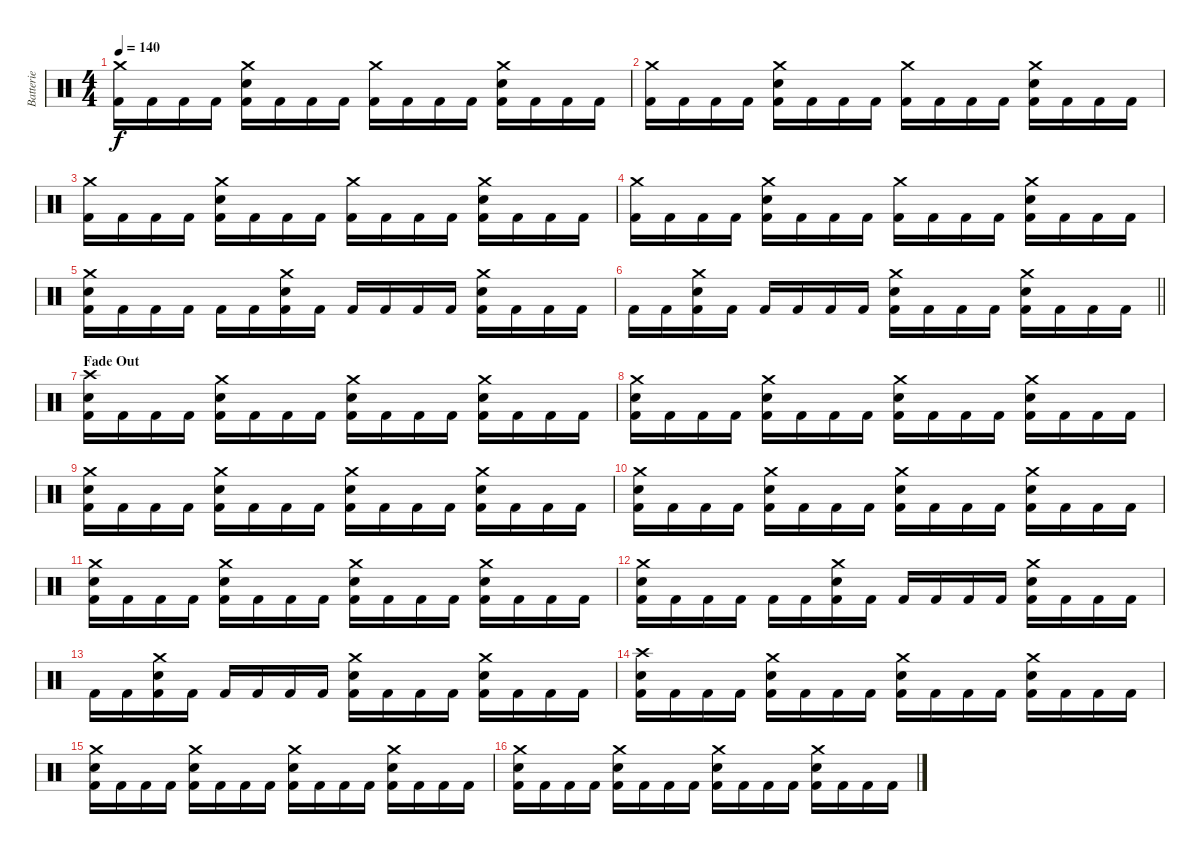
\track ("Batterie" "Batterie") {instrument percussion}
\staff {score}
\articulation defaults
\ts (4 4)
\tempo 140
\clef neutral
\ks c
("Crash medium (hit)" "Kick (hit) 2").16{dy f} "Kick (hit) 2".16 "Kick (hit) 2".16 "Kick (hit) 2".16 ("Crash medium (hit)" "Electric Snare (hit)" "Kick (hit) 2").16 "Kick (hit) 2".16 "Kick (hit) 2".16 "Kick (hit) 2".16 ("Crash medium (hit)" "Kick (hit) 2").16 "Kick (hit) 2".16 "Kick (hit) 2".16 "Kick (hit) 2".16 ("Crash medium (hit)" "Electric Snare (hit)" "Kick (hit) 2").16 "Kick (hit) 2".16 "Kick (hit) 2".16 "Kick (hit) 2".16 |
("Crash medium (hit)" "Kick (hit) 2").16 "Kick (hit) 2".16 "Kick (hit) 2".16 "Kick (hit) 2".16 ("Crash medium (hit)" "Electric Snare (hit)" "Kick (hit) 2").16 "Kick (hit) 2".16 "Kick (hit) 2".16 "Kick (hit) 2".16 ("Crash medium (hit)" "Kick (hit) 2").16 "Kick (hit) 2".16 "Kick (hit) 2".16 "Kick (hit) 2".16 ("Crash medium (hit)" "Electric Snare (hit)" "Kick (hit) 2").16 "Kick (hit) 2".16 "Kick (hit) 2".16 "Kick (hit) 2".16 |
("Crash medium (hit)" "Kick (hit) 2").16 "Kick (hit) 2".16 "Kick (hit) 2".16 "Kick (hit) 2".16 ("Crash medium (hit)" "Electric Snare (hit)" "Kick (hit) 2").16 "Kick (hit) 2".16 "Kick (hit) 2".16 "Kick (hit) 2".16 ("Crash medium (hit)" "Kick (hit) 2").16 "Kick (hit) 2".16 "Kick (hit) 2".16 "Kick (hit) 2".16 ("Crash medium (hit)" "Electric Snare (hit)" "Kick (hit) 2").16 "Kick (hit) 2".16 "Kick (hit) 2".16 "Kick (hit) 2".16 |
("Crash medium (hit)" "Kick (hit) 2").16 "Kick (hit) 2".16 "Kick (hit) 2".16 "Kick (hit) 2".16 ("Crash medium (hit)" "Electric Snare (hit)" "Kick (hit) 2").16 "Kick (hit) 2".16 "Kick (hit) 2".16 "Kick (hit) 2".16 ("Crash medium (hit)" "Kick (hit) 2").16 "Kick (hit) 2".16 "Kick (hit) 2".16 "Kick (hit) 2".16 ("Crash medium (hit)" "Electric Snare (hit)" "Kick (hit) 2").16 "Kick (hit) 2".16 "Kick (hit) 2".16 "Kick (hit) 2".16 |
("Crash medium (hit)" "Electric Snare (hit)" "Kick (hit) 2").16 "Kick (hit) 2".16 "Kick (hit) 2".16 "Kick (hit) 2".16 "Kick (hit) 2".16 "Kick (hit) 2".16 ("Crash medium (hit)" "Electric Snare (hit)" "Kick (hit) 2").16 "Kick (hit) 2".16 "Kick (hit) 2".16 "Kick (hit) 2".16 "Kick (hit) 2".16 "Kick (hit) 2".16 ("Crash medium (hit)" "Electric Snare (hit)" "Kick (hit) 2").16 "Kick (hit) 2".16 "Kick (hit) 2".16 "Kick (hit) 2".16 |
\barLineRight lightlight "Kick (hit) 2".16 "Kick (hit) 2".16
("Crash medium (hit)" "Electric Snare (hit)" "Kick (hit) 2").16 "Kick (hit) 2".16 "Kick (hit) 2".16 "Kick (hit) 2".16 "Kick (hit) 2".16 "Kick (hit) 2".16 ("Crash medium (hit)" "Electric Snare (hit)" "Kick (hit) 2").16 "Kick (hit) 2".16 "Kick (hit) 2".16 "Kick (hit) 2".16 ("Crash medium (hit)" "Electric Snare (hit)" "Kick (hit) 2").16 "Kick (hit) 2".16 "Kick (hit) 2".16 "Kick (hit) 2".16 |
\section ("" "Fade Out")
("Crash high (hit)" "Electric Snare (hit)" "Kick (hit) 2").16 "Kick (hit) 2".16 "Kick (hit) 2".16 "Kick (hit) 2".16 ("Crash medium (hit)" "Electric Snare (hit)" "Kick (hit) 2").16 "Kick (hit) 2".16 "Kick (hit) 2".16 "Kick (hit) 2".16 ("Crash medium (hit)" "Electric Snare (hit)" "Kick (hit) 2").16 "Kick (hit) 2".16 "Kick (hit) 2".16 "Kick (hit) 2".16 ("Crash medium (hit)" "Electric Snare (hit)" "Kick (hit) 2").16 "Kick (hit) 2".16 "Kick (hit) 2".16 "Kick (hit) 2".16 |
("Crash medium (hit)" "Electric Snare (hit)" "Kick (hit) 2").16 "Kick (hit) 2".16 "Kick (hit) 2".16 "Kick (hit) 2".16 ("Crash medium (hit)" "Electric Snare (hit)" "Kick (hit) 2").16 "Kick (hit) 2".16 "Kick (hit) 2".16 "Kick (hit) 2".16 ("Crash medium (hit)" "Electric Snare (hit)" "Kick (hit) 2").16 "Kick (hit) 2".16 "Kick (hit) 2".16 "Kick (hit) 2".16 ("Crash medium (hit)" "Electric Snare (hit)" "Kick (hit) 2").16 "Kick (hit) 2".16 "Kick (hit) 2".16 "Kick (hit) 2".16 |
("Crash medium (hit)" "Electric Snare (hit)" "Kick (hit) 2").16 "Kick (hit) 2".16 "Kick (hit) 2".16 "Kick (hit) 2".16 ("Crash medium (hit)" "Electric Snare (hit)" "Kick (hit) 2").16 "Kick (hit) 2".16 "Kick (hit) 2".16 "Kick (hit) 2".16 ("Crash medium (hit)" "Electric Snare (hit)" "Kick (hit) 2").16 "Kick (hit) 2".16 "Kick (hit) 2".16 "Kick (hit) 2".16 ("Crash medium (hit)" "Electric Snare (hit)" "Kick (hit) 2").16 "Kick (hit) 2".16 "Kick (hit) 2".16 "Kick (hit) 2".16 |
("Crash medium (hit)" "Electric Snare (hit)" "Kick (hit) 2").16 "Kick (hit) 2".16 "Kick (hit) 2".16 "Kick (hit) 2".16 ("Crash medium (hit)" "Electric Snare (hit)" "Kick (hit) 2").16 "Kick (hit) 2".16 "Kick (hit) 2".16 "Kick (hit) 2".16 ("Crash medium (hit)" "Electric Snare (hit)" "Kick (hit) 2").16 "Kick (hit) 2".16 "Kick (hit) 2".16 "Kick (hit) 2".16 ("Crash medium (hit)" "Electric Snare (hit)" "Kick (hit) 2").16 "Kick (hit) 2".16 "Kick (hit) 2".16 "Kick (hit) 2".16 |
("Crash medium (hit)" "Electric Snare (hit)" "Kick (hit) 2").16 "Kick (hit) 2".16 "Kick (hit) 2".16 "Kick (hit) 2".16 ("Crash medium (hit)" "Electric Snare (hit)" "Kick (hit) 2").16 "Kick (hit) 2".16 "Kick (hit) 2".16 "Kick (hit) 2".16 ("Crash medium (hit)" "Electric Snare (hit)" "Kick (hit) 2").16 "Kick (hit) 2".16 "Kick (hit) 2".16 "Kick (hit) 2".16 ("Crash medium (hit)" "Electric Snare (hit)" "Kick (hit) 2").16 "Kick (hit) 2".16 "Kick (hit) 2".16 "Kick (hit) 2".16 |
("Crash medium (hit)" "Electric Snare (hit)" "Kick (hit) 2").16 "Kick (hit) 2".16 "Kick (hit) 2".16 "Kick (hit) 2".16 "Kick (hit) 2".16 "Kick (hit) 2".16 ("Crash medium (hit)" "Electric Snare (hit)" "Kick (hit) 2").16 "Kick (hit) 2".16 "Kick (hit) 2".16 "Kick (hit) 2".16 "Kick (hit) 2".16 "Kick (hit) 2".16 ("Crash medium (hit)" "Electric Snare (hit)" "Kick (hit) 2").16 "Kick (hit) 2".16 "Kick (hit) 2".16 "Kick (hit) 2".16 |
"Kick (hit) 2".16 "Kick (hit) 2".16 ("Crash medium (hit)" "Electric Snare (hit)" "Kick (hit) 2").16 "Kick (hit) 2".16 "Kick (hit) 2".16 "Kick (hit) 2".16 "Kick (hit) 2".16 "Kick (hit) 2".16 ("Crash medium (hit)" "Electric Snare (hit)" "Kick (hit) 2").16 "Kick (hit) 2".16 "Kick (hit) 2".16 "Kick (hit) 2".16 ("Crash medium (hit)" "Electric Snare (hit)" "Kick (hit) 2").16 "Kick (hit) 2".16 "Kick (hit) 2".16 "Kick (hit) 2".16 |
("Crash high (hit)" "Electric Snare (hit)" "Kick (hit) 2").16 "Kick (hit) 2".16 "Kick (hit) 2".16 "Kick (hit) 2".16 ("Crash medium (hit)" "Electric Snare (hit)" "Kick (hit) 2").16 "Kick (hit) 2".16 "Kick (hit) 2".16 "Kick (hit) 2".16 ("Crash medium (hit)" "Electric Snare (hit)" "Kick (hit) 2").16 "Kick (hit) 2".16 "Kick (hit) 2".16 "Kick (hit) 2".16 ("Crash medium (hit)" "Electric Snare (hit)" "Kick (hit) 2").16 "Kick (hit) 2".16 "Kick (hit) 2".16 "Kick (hit) 2".16 |
("Crash medium (hit)" "Electric Snare (hit)" "Kick (hit) 2").16 "Kick (hit) 2".16 "Kick (hit) 2".16 "Kick (hit) 2".16 ("Crash medium (hit)" "Electric Snare (hit)" "Kick (hit) 2").16 "Kick (hit) 2".16 "Kick (hit) 2".16 "Kick (hit) 2".16 ("Crash medium (hit)" "Electric Snare (hit)" "Kick (hit) 2").16 "Kick (hit) 2".16 "Kick (hit) 2".16 "Kick (hit) 2".16 ("Crash medium (hit)" "Electric Snare (hit)" "Kick (hit) 2").16 "Kick (hit) 2".16 "Kick (hit) 2".16 "Kick (hit) 2".16 |
("Crash medium (hit)" "Electric Snare (hit)" "Kick (hit) 2").16 "Kick (hit) 2".16 "Kick (hit) 2".16 "Kick (hit) 2".16 ("Crash medium (hit)" "Electric Snare (hit)" "Kick (hit) 2").16 "Kick (hit) 2".16 "Kick (hit) 2".16 "Kick (hit) 2".16 ("Crash medium (hit)" "Electric Snare (hit)" "Kick (hit) 2").16 "Kick (hit) 2".16 "Kick (hit) 2".16 "Kick (hit) 2".16 ("Crash medium (hit)" "Electric Snare (hit)" "Kick (hit) 2").16 "Kick (hit) 2".16 "Kick (hit) 2".16 "Kick (hit) 2".16
